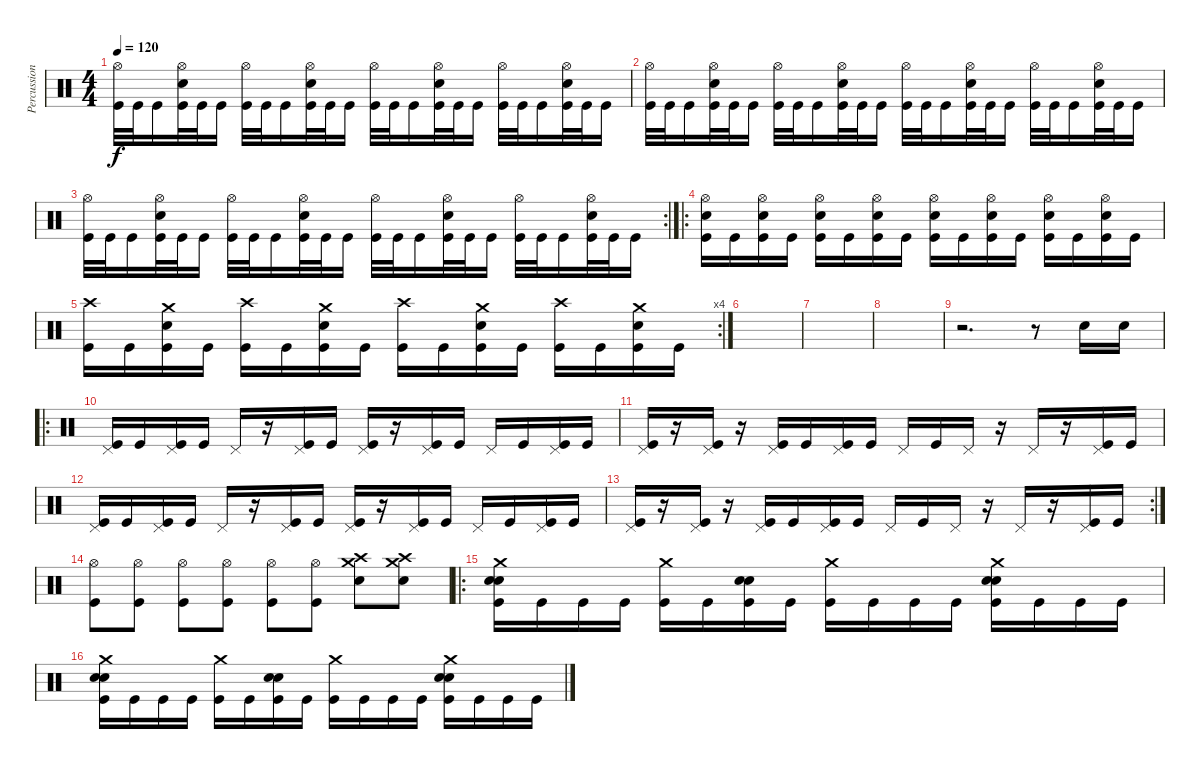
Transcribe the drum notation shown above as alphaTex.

\track ("Percussion" "Percussion") {instrument percussion}
\staff {score}
\articulation defaults
\ts (4 4)
\tempo 120
\clef neutral
\ks c
("Hi-Hat (open)" "Kick (hit)").32{dy f} "Kick (hit)".32 "Kick (hit)".16 ("Hi-Hat (open)" "Snare (hit) 2" "Kick (hit)").32 "Kick (hit)".32 "Kick (hit)".16 ("Hi-Hat (open)" "Kick (hit)").32 "Kick (hit)".32 "Kick (hit)".16 ("Hi-Hat (open)" "Snare (hit) 2" "Kick (hit)").32 "Kick (hit)".32 "Kick (hit)".16 ("Hi-Hat (open)" "Kick (hit)").32 "Kick (hit)".32 "Kick (hit)".16 ("Hi-Hat (open)" "Snare (hit) 2" "Kick (hit)").32 "Kick (hit)".32 "Kick (hit)".16 ("Hi-Hat (open)" "Kick (hit)").32 "Kick (hit)".32 "Kick (hit)".16 ("Hi-Hat (open)" "Snare (hit) 2" "Kick (hit)").32 "Kick (hit)".32 "Kick (hit)".16 |
("Hi-Hat (open)" "Kick (hit)").32 "Kick (hit)".32 "Kick (hit)".16 ("Hi-Hat (open)" "Snare (hit) 2" "Kick (hit)").32 "Kick (hit)".32 "Kick (hit)".16 ("Hi-Hat (open)" "Kick (hit)").32 "Kick (hit)".32 "Kick (hit)".16 ("Hi-Hat (open)" "Snare (hit) 2" "Kick (hit)").32 "Kick (hit)".32 "Kick (hit)".16 ("Hi-Hat (open)" "Kick (hit)").32 "Kick (hit)".32 "Kick (hit)".16 ("Hi-Hat (open)" "Snare (hit) 2" "Kick (hit)").32 "Kick (hit)".32 "Kick (hit)".16 ("Hi-Hat (open)" "Kick (hit)").32 "Kick (hit)".32 "Kick (hit)".16 ("Hi-Hat (open)" "Snare (hit) 2" "Kick (hit)").32 "Kick (hit)".32 "Kick (hit)".16 |
\rc 2
("Hi-Hat (open)" "Kick (hit)").32 "Kick (hit)".32 "Kick (hit)".16 ("Hi-Hat (open)" "Snare (hit) 2" "Kick (hit)").32 "Kick (hit)".32 "Kick (hit)".16 ("Hi-Hat (open)" "Kick (hit)").32 "Kick (hit)".32 "Kick (hit)".16 ("Hi-Hat (open)" "Snare (hit) 2" "Kick (hit)").32 "Kick (hit)".32 "Kick (hit)".16 ("Hi-Hat (open)" "Kick (hit)").32 "Kick (hit)".32 "Kick (hit)".16 ("Hi-Hat (open)" "Snare (hit) 2" "Kick (hit)").32 "Kick (hit)".32 "Kick (hit)".16 ("Hi-Hat (open)" "Kick (hit)").32 "Kick (hit)".32 "Kick (hit)".16 ("Hi-Hat (open)" "Snare (hit) 2" "Kick (hit)").32 "Kick (hit)".32 "Kick (hit)".16 |
\ro
("Hi-Hat (open)" "Snare (hit) 2" "Kick (hit)").16 "Kick (hit)".16 ("Hi-Hat (open)" "Snare (hit) 2" "Kick (hit)").16 "Kick (hit)".16 ("Hi-Hat (open)" "Snare (hit) 2" "Kick (hit)").16 "Kick (hit)".16 ("Hi-Hat (open)" "Snare (hit) 2" "Kick (hit)").16 "Kick (hit)".16 ("Hi-Hat (open)" "Snare (hit) 2" "Kick (hit)").16 "Kick (hit)".16 ("Hi-Hat (open)" "Snare (hit) 2" "Kick (hit)").16 "Kick (hit)".16 ("Hi-Hat (open)" "Snare (hit) 2" "Kick (hit)").16 "Kick (hit)".16 ("Hi-Hat (open)" "Snare (hit) 2" "Kick (hit)").16 "Kick (hit)".16 |
\rc 4
("Crash high (hit)" "Kick (hit)").16 "Kick (hit)".16 ("Crash medium (hit)" "Snare (hit) 2" "Kick (hit)").16 "Kick (hit)".16 ("Crash high (hit)" "Kick (hit)").16 "Kick (hit)".16 ("Crash medium (hit)" "Snare (hit) 2" "Kick (hit)").16 "Kick (hit)".16 ("Crash high (hit)" "Kick (hit)").16 "Kick (hit)".16 ("Crash medium (hit)" "Snare (hit) 2" "Kick (hit)").16 "Kick (hit)".16 ("Crash high (hit)" "Kick (hit)").16 "Kick (hit)".16 ("Crash medium (hit)" "Snare (hit) 2" "Kick (hit)").16 "Kick (hit)".16 |
|
|
|
r.2{d} r.8 "Snare (hit) 2".16 "Snare (hit) 2".16 |
\ro
("Pedal Hi-Hat (hit)" "Kick (hit)").16 "Kick (hit)".16 ("Pedal Hi-Hat (hit)" "Kick (hit)").16 "Kick (hit)".16 "Pedal Hi-Hat (hit)".16 r.16 ("Pedal Hi-Hat (hit)" "Kick (hit)").16 "Kick (hit)".16 ("Pedal Hi-Hat (hit)" "Kick (hit)").16 r.16 ("Pedal Hi-Hat (hit)" "Kick (hit)").16 "Kick (hit)".16 "Pedal Hi-Hat (hit)".16 "Kick (hit)".16 ("Pedal Hi-Hat (hit)" "Kick (hit)").16 "Kick (hit)".16 |
("Pedal Hi-Hat (hit)" "Kick (hit)").16 r.16 ("Pedal Hi-Hat (hit)" "Kick (hit)").16 r.16 ("Pedal Hi-Hat (hit)" "Kick (hit)").16 "Kick (hit)".16 ("Pedal Hi-Hat (hit)" "Kick (hit)").16 "Kick (hit)".16 "Pedal Hi-Hat (hit)".16 "Kick (hit)".16 "Pedal Hi-Hat (hit)".16 r.16 "Pedal Hi-Hat (hit)".16 r.16 ("Pedal Hi-Hat (hit)" "Kick (hit)").16 "Kick (hit)".16 |
("Pedal Hi-Hat (hit)" "Kick (hit)").16 "Kick (hit)".16 ("Pedal Hi-Hat (hit)" "Kick (hit)").16 "Kick (hit)".16 "Pedal Hi-Hat (hit)".16 r.16 ("Pedal Hi-Hat (hit)" "Kick (hit)").16 "Kick (hit)".16 ("Pedal Hi-Hat (hit)" "Kick (hit)").16 r.16 ("Pedal Hi-Hat (hit)" "Kick (hit)").16 "Kick (hit)".16 "Pedal Hi-Hat (hit)".16 "Kick (hit)".16 ("Pedal Hi-Hat (hit)" "Kick (hit)").16 "Kick (hit)".16 |
\rc 2
("Pedal Hi-Hat (hit)" "Kick (hit)").16 r.16 ("Pedal Hi-Hat (hit)" "Kick (hit)").16 r.16 ("Pedal Hi-Hat (hit)" "Kick (hit)").16 "Kick (hit)".16 ("Pedal Hi-Hat (hit)" "Kick (hit)").16 "Kick (hit)".16 "Pedal Hi-Hat (hit)".16 "Kick (hit)".16 "Pedal Hi-Hat (hit)".16 r.16 "Pedal Hi-Hat (hit)".16 r.16 ("Pedal Hi-Hat (hit)" "Kick (hit)").16 "Kick (hit)".16 |
("Hi-Hat (open)" "Kick (hit)").8 ("Hi-Hat (open)" "Kick (hit)").8 ("Hi-Hat (open)" "Kick (hit)").8 ("Hi-Hat (open)" "Kick (hit)").8 ("Hi-Hat (open)" "Kick (hit)").8 ("Hi-Hat (open)" "Kick (hit)").8 ("Crash medium (hit)" "Crash high (hit)" "Snare (hit) 2").8 ("Crash medium (hit)" "Crash high (hit)" "Snare (hit) 2").8 |
\ro
("Crash medium (hit)" "Snare (hit) 2" "Snare (hit) 2" "Kick (hit)").16 "Kick (hit)".16 "Kick (hit)".16 "Kick (hit)".16 ("Crash medium (hit)" "Kick (hit)").16 "Kick (hit)".16 ("Snare (hit) 2" "Snare (hit) 2" "Kick (hit)").16 "Kick (hit)".16 ("Crash medium (hit)" "Kick (hit)").16 "Kick (hit)".16 "Kick (hit)".16 "Kick (hit)".16 ("Crash medium (hit)" "Snare (hit) 2" "Snare (hit) 2" "Kick (hit)").16 "Kick (hit)".16 "Kick (hit)".16 "Kick (hit)".16 |
("Crash medium (hit)" "Snare (hit) 2" "Snare (hit) 2" "Kick (hit)").16 "Kick (hit)".16 "Kick (hit)".16 "Kick (hit)".16 ("Crash medium (hit)" "Kick (hit)").16 "Kick (hit)".16 ("Snare (hit) 2" "Snare (hit) 2" "Kick (hit)").16 "Kick (hit)".16 ("Crash medium (hit)" "Kick (hit)").16 "Kick (hit)".16 "Kick (hit)".16 "Kick (hit)".16 ("Crash medium (hit)" "Snare (hit) 2" "Snare (hit) 2" "Kick (hit)").16 "Kick (hit)".16 "Kick (hit)".16 "Kick (hit)".16
